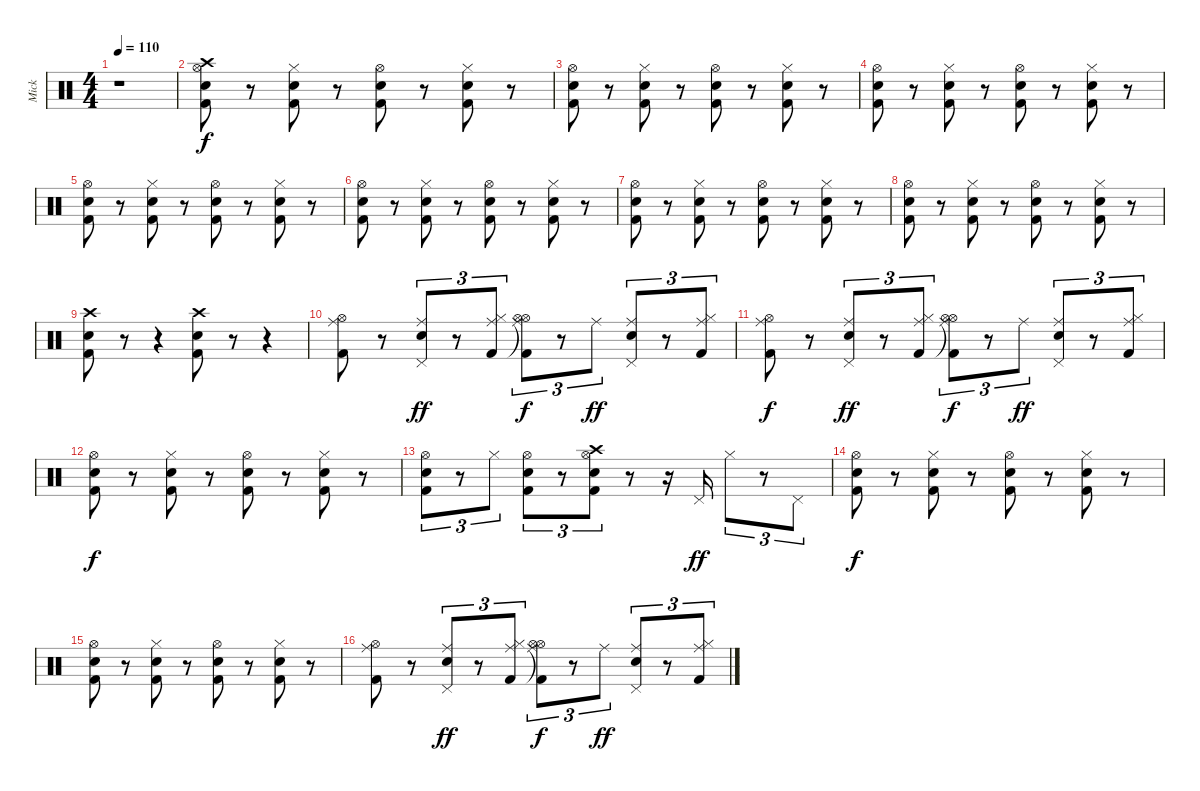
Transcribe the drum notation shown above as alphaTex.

\track ("Mick" "Mick") {instrument percussion}
\staff {score}
\articulation defaults
\ts (4 4)
\tempo 110
\clef neutral
\ks c
r.1{dy f} |
("Crash high (hit)" "Hi-Hat (open)" "Snare (hit) 2" "Kick (hit) 2").8 r.8 ("Hi-Hat (closed)" "Snare (hit) 2" "Kick (hit) 2").8 r.8 ("Hi-Hat (open)" "Snare (hit) 2" "Kick (hit) 2").8 r.8 ("Hi-Hat (closed)" "Snare (hit) 2" "Kick (hit) 2").8 r.8 |
("Hi-Hat (open)" "Snare (hit) 2" "Kick (hit) 2").8 r.8 ("Hi-Hat (closed)" "Snare (hit) 2" "Kick (hit) 2").8 r.8 ("Hi-Hat (open)" "Snare (hit) 2" "Kick (hit) 2").8 r.8 ("Hi-Hat (closed)" "Snare (hit) 2" "Kick (hit) 2").8 r.8 |
("Hi-Hat (open)" "Snare (hit) 2" "Kick (hit) 2").8 r.8 ("Hi-Hat (closed)" "Snare (hit) 2" "Kick (hit) 2").8 r.8 ("Hi-Hat (open)" "Snare (hit) 2" "Kick (hit) 2").8 r.8 ("Hi-Hat (closed)" "Snare (hit) 2" "Kick (hit) 2").8 r.8 |
("Hi-Hat (open)" "Snare (hit) 2" "Kick (hit) 2").8 r.8 ("Hi-Hat (closed)" "Snare (hit) 2" "Kick (hit) 2").8 r.8 ("Hi-Hat (open)" "Snare (hit) 2" "Kick (hit) 2").8 r.8 ("Hi-Hat (closed)" "Snare (hit) 2" "Kick (hit) 2").8 r.8 |
("Hi-Hat (open)" "Snare (hit) 2" "Kick (hit) 2").8 r.8 ("Hi-Hat (closed)" "Snare (hit) 2" "Kick (hit) 2").8 r.8 ("Hi-Hat (open)" "Snare (hit) 2" "Kick (hit) 2").8 r.8 ("Hi-Hat (closed)" "Snare (hit) 2" "Kick (hit) 2").8 r.8 |
("Hi-Hat (open)" "Snare (hit) 2" "Kick (hit) 2").8 r.8 ("Hi-Hat (closed)" "Snare (hit) 2" "Kick (hit) 2").8 r.8 ("Hi-Hat (open)" "Snare (hit) 2" "Kick (hit) 2").8 r.8 ("Hi-Hat (closed)" "Snare (hit) 2" "Kick (hit) 2").8 r.8 |
("Hi-Hat (open)" "Snare (hit) 2" "Kick (hit) 2").8 r.8 ("Hi-Hat (closed)" "Snare (hit) 2" "Kick (hit) 2").8 r.8 ("Hi-Hat (open)" "Snare (hit) 2" "Kick (hit) 2").8 r.8 ("Hi-Hat (closed)" "Snare (hit) 2" "Kick (hit) 2").8 r.8 |
("Crash high (hit)" "Snare (hit) 2" "Kick (hit) 2").8 r.8 r.4 ("Crash high (hit)" "Snare (hit) 2" "Kick (hit) 2").8 r.8 r.4 |
("Ride (middle)" "Hi-Hat (open)" "Kick (hit) 2").8 r.8 ("Ride (middle)" "Pedal Hi-Hat (hit)" "Snare (hit) 2").8{tu (3 2) dy ff} r.8{tu (3 2)} ("Ride (middle)" "Hi-Hat (closed)" "Kick (hit) 2").8{tu (3 2)} ("Hi-Hat (open)" "Ride (middle)" "Hi-Hat (open)"{t} "Kick (hit) 2").8{tu (3 2) dy f} r.8{tu (3 2)} "Ride (middle)".8{tu (3 2) dy ff} ("Ride (middle)" "Pedal Hi-Hat (hit)" "Snare (hit) 2").8{tu (3 2)} r.8{tu (3 2)} ("Ride (middle)" "Hi-Hat (closed)" "Kick (hit) 2").8{tu (3 2)} |
("Ride (middle)" "Hi-Hat (open)" "Kick (hit) 2").8{dy f} r.8 ("Ride (middle)" "Pedal Hi-Hat (hit)" "Snare (hit) 2").8{tu (3 2) dy ff} r.8{tu (3 2)} ("Ride (middle)" "Hi-Hat (closed)" "Kick (hit) 2").8{tu (3 2)} ("Hi-Hat (open)" "Ride (middle)" "Hi-Hat (open)"{t} "Kick (hit) 2").8{tu (3 2) dy f} r.8{tu (3 2)} "Ride (middle)".8{tu (3 2) dy ff} ("Ride (middle)" "Pedal Hi-Hat (hit)" "Snare (hit) 2").8{tu (3 2)} r.8{tu (3 2)} ("Ride (middle)" "Hi-Hat (closed)" "Kick (hit) 2").8{tu (3 2)} |
("Hi-Hat (open)" "Snare (hit) 2" "Kick (hit) 2").8{dy f} r.8 ("Hi-Hat (closed)" "Snare (hit) 2" "Kick (hit) 2").8 r.8 ("Hi-Hat (open)" "Snare (hit) 2" "Kick (hit) 2").8 r.8 ("Hi-Hat (closed)" "Snare (hit) 2" "Kick (hit) 2").8 r.8 |
("Hi-Hat (open)" "Snare (hit) 2" "Kick (hit) 2").8{tu (3 2)} r.8{tu (3 2)} "Hi-Hat (closed)".8{tu (3 2)} ("Hi-Hat (open)" "Snare (hit) 2" "Kick (hit) 2").8{tu (3 2)} r.8{tu (3 2)} ("Crash high (hit)" "Hi-Hat (open)" "Snare (hit) 2" "Kick (hit) 2").8{tu (3 2)} r.8 r.16 "Pedal Hi-Hat (hit)".16{dy ff} "Hi-Hat (closed)".8{tu (3 2)} r.8{tu (3 2)} "Pedal Hi-Hat (hit)".8{tu (3 2)} |
("Hi-Hat (open)" "Snare (hit) 2" "Kick (hit) 2").8{dy f} r.8 ("Hi-Hat (closed)" "Snare (hit) 2" "Kick (hit) 2").8 r.8 ("Hi-Hat (open)" "Snare (hit) 2" "Kick (hit) 2").8 r.8 ("Hi-Hat (closed)" "Snare (hit) 2" "Kick (hit) 2").8 r.8 |
("Hi-Hat (open)" "Snare (hit) 2" "Kick (hit) 2").8 r.8 ("Hi-Hat (closed)" "Snare (hit) 2" "Kick (hit) 2").8 r.8 ("Hi-Hat (open)" "Snare (hit) 2" "Kick (hit) 2").8 r.8 ("Hi-Hat (closed)" "Snare (hit) 2" "Kick (hit) 2").8 r.8 |
("Ride (middle)" "Hi-Hat (open)" "Kick (hit) 2").8 r.8 ("Ride (middle)" "Pedal Hi-Hat (hit)" "Snare (hit) 2").8{tu (3 2) dy ff} r.8{tu (3 2)} ("Ride (middle)" "Hi-Hat (closed)" "Kick (hit) 2").8{tu (3 2)} ("Hi-Hat (open)" "Ride (middle)" "Hi-Hat (open)"{t} "Kick (hit) 2").8{tu (3 2) dy f} r.8{tu (3 2)} "Ride (middle)".8{tu (3 2) dy ff} ("Ride (middle)" "Pedal Hi-Hat (hit)" "Snare (hit) 2").8{tu (3 2)} r.8{tu (3 2)} ("Ride (middle)" "Hi-Hat (closed)" "Kick (hit) 2").8{tu (3 2)}
